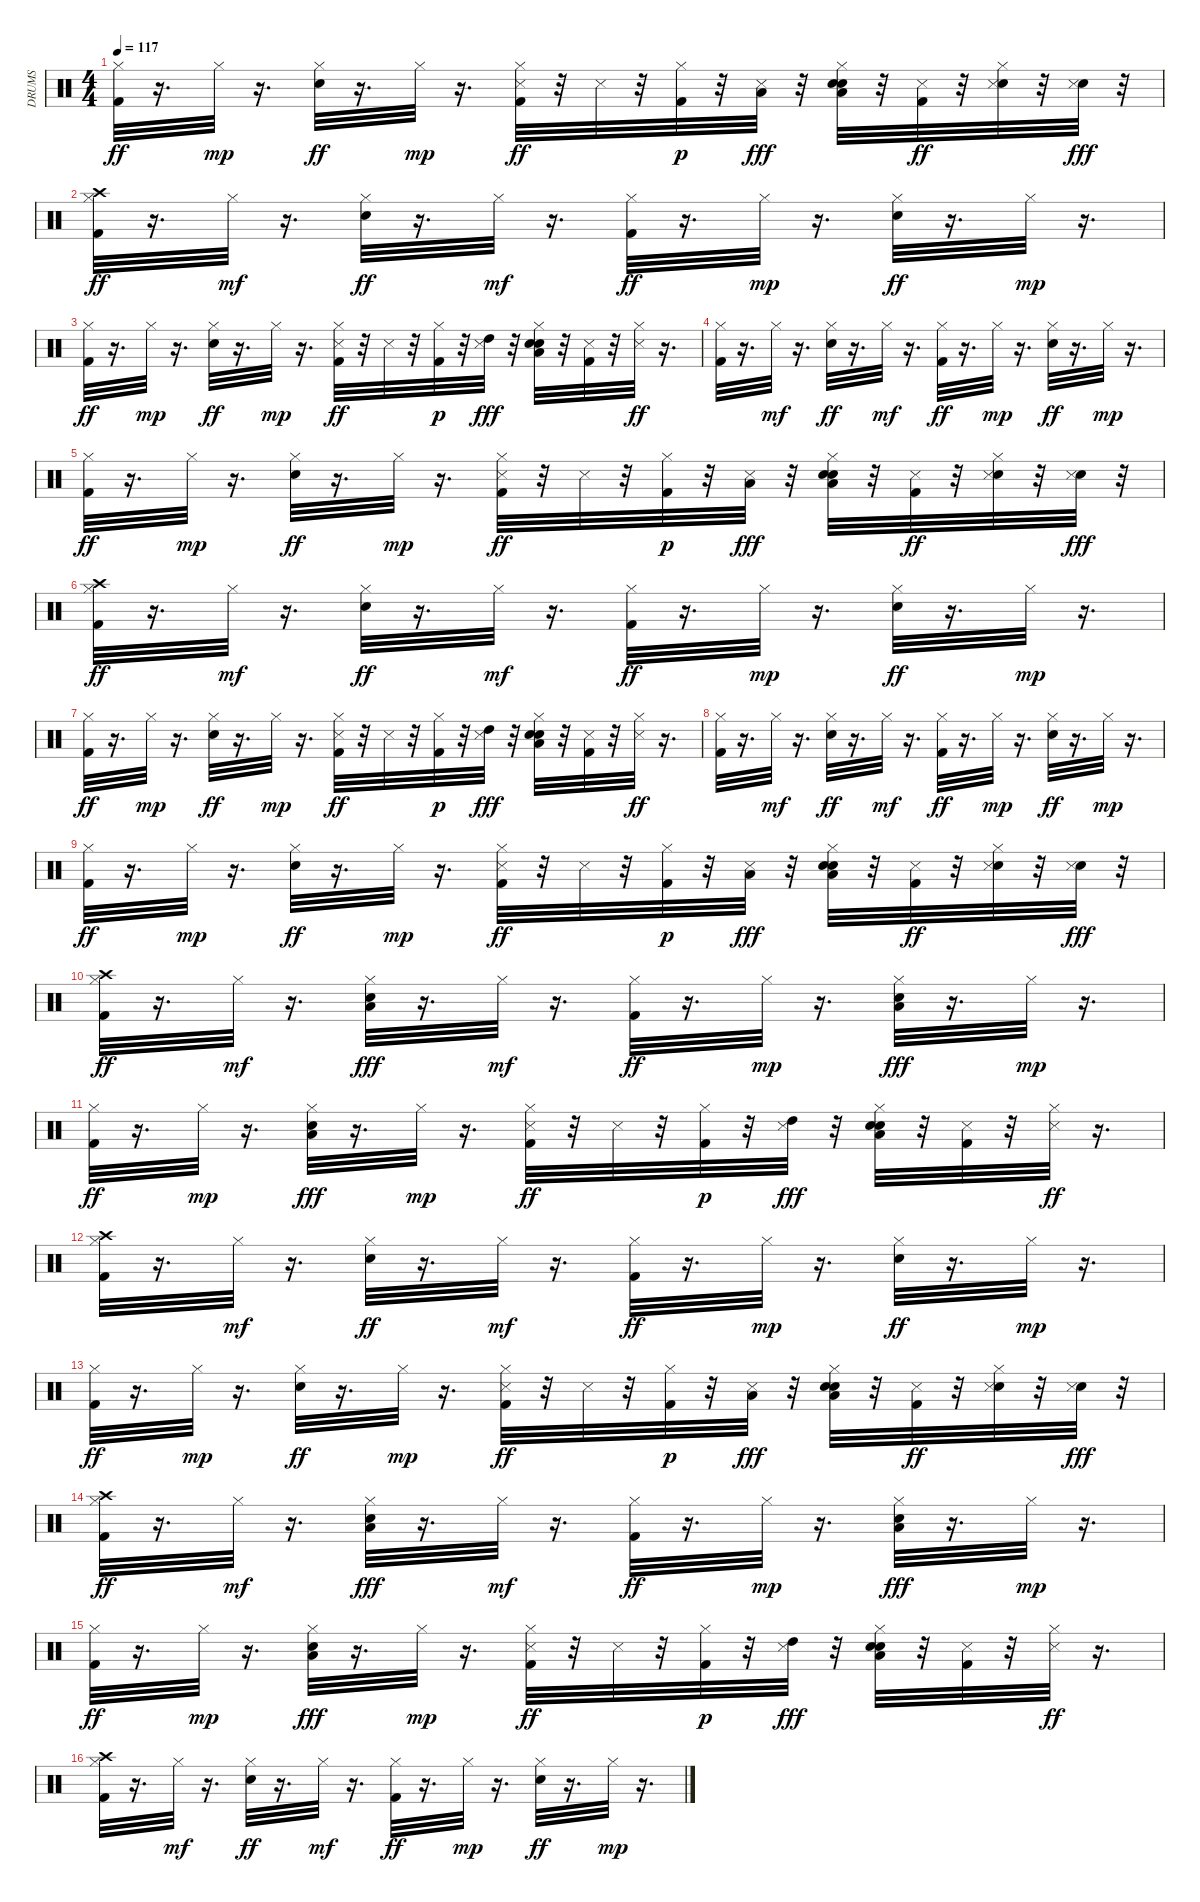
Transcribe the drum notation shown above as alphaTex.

\track ("DRUMS" "DRUMS") {instrument percussion}
\staff {score}
\articulation defaults
\ts (4 4)
\tempo 117
\clef neutral
\ks c
("Kick (hit) 2" "Hi-Hat (closed)").32{dy ff} r.16{d} "Hi-Hat (closed)".32{dy mp} r.16{d} ("Snare (hit) 2" "Hi-Hat (closed)").32{dy ff} r.16{d} "Hi-Hat (closed)".32{dy mp} r.16{d} ("Kick (hit) 2" "Hi-Hat (closed)" "Snare (side stick) 3").32{dy ff} r.32 "Snare (side stick) 3".32 r.32 ("Kick (hit) 2" "Hi-Hat (closed)").32{dy p} r.32 ("Low Tom (hit)" "Snare (side stick) 3").32{dy fff} r.32 ("Snare (hit) 2" "Hi-Hat (closed)" "Low Floor Tom (hit)" "Hand Clap (hit)").32 r.32 ("Kick (hit) 2" "Snare (side stick) 3").32{dy ff} r.32 ("Snare (hit) 2" "Hi-Hat (closed)" "Snare (side stick) 3").32 r.32 ("Snare (hit) 2" "Snare (side stick) 3").32{dy fff} r.32 |
("Crash high (hit)" "Kick (hit) 2" "Hi-Hat (closed)").32{dy ff} r.16{d} "Hi-Hat (closed)".32{dy mf} r.16{d} ("Snare (hit) 2" "Hi-Hat (closed)").32{dy ff} r.16{d} "Hi-Hat (closed)".32{dy mf} r.16{d} ("Kick (hit) 2" "Hi-Hat (closed)").32{dy ff} r.16{d} "Hi-Hat (closed)".32{dy mp} r.16{d} ("Snare (hit) 2" "Hi-Hat (closed)").32{dy ff} r.16{d} "Hi-Hat (closed)".32{dy mp} r.16{d} |
("Kick (hit) 2" "Hi-Hat (closed)").32{dy ff} r.16{d} "Hi-Hat (closed)".32{dy mp} r.16{d} ("Snare (hit) 2" "Hi-Hat (closed)").32{dy ff} r.16{d} "Hi-Hat (closed)".32{dy mp} r.16{d} ("Kick (hit) 2" "Hi-Hat (closed)" "Snare (side stick) 3").32{dy ff} r.32 "Snare (side stick) 3".32 r.32 ("Kick (hit) 2" "Hi-Hat (closed)").32{dy p} r.32 ("High Tom (hit)" "Snare (side stick) 3").32{dy fff} r.32 ("Snare (hit) 2" "Hi-Hat (closed)" "Low Tom (hit)" "Hand Clap (hit)").32 r.32 ("Kick (hit) 2" "Snare (side stick) 3").32 r.32 ("Hi-Hat (closed)" "Snare (side stick) 3").32{dy ff} r.16{d} |
("Kick (hit) 2" "Hi-Hat (closed)").32 r.16{d} "Hi-Hat (closed)".32{dy mf} r.16{d} ("Snare (hit) 2" "Hi-Hat (closed)").32{dy ff} r.16{d} "Hi-Hat (closed)".32{dy mf} r.16{d} ("Kick (hit) 2" "Hi-Hat (closed)").32{dy ff} r.16{d} "Hi-Hat (closed)".32{dy mp} r.16{d} ("Snare (hit) 2" "Hi-Hat (closed)").32{dy ff} r.16{d} "Hi-Hat (closed)".32{dy mp} r.16{d} |
("Kick (hit) 2" "Hi-Hat (closed)").32{dy ff} r.16{d} "Hi-Hat (closed)".32{dy mp} r.16{d} ("Snare (hit) 2" "Hi-Hat (closed)").32{dy ff} r.16{d} "Hi-Hat (closed)".32{dy mp} r.16{d} ("Kick (hit) 2" "Hi-Hat (closed)" "Snare (side stick) 3").32{dy ff} r.32 "Snare (side stick) 3".32 r.32 ("Kick (hit) 2" "Hi-Hat (closed)").32{dy p} r.32 ("Low Tom (hit)" "Snare (side stick) 3").32{dy fff} r.32 ("Snare (hit) 2" "Hi-Hat (closed)" "Low Floor Tom (hit)" "Hand Clap (hit)").32 r.32 ("Kick (hit) 2" "Snare (side stick) 3").32{dy ff} r.32 ("Snare (hit) 2" "Hi-Hat (closed)" "Snare (side stick) 3").32 r.32 ("Snare (hit) 2" "Snare (side stick) 3").32{dy fff} r.32 |
("Crash high (hit)" "Kick (hit) 2" "Hi-Hat (closed)").32{dy ff} r.16{d} "Hi-Hat (closed)".32{dy mf} r.16{d} ("Snare (hit) 2" "Hi-Hat (closed)").32{dy ff} r.16{d} "Hi-Hat (closed)".32{dy mf} r.16{d} ("Kick (hit) 2" "Hi-Hat (closed)").32{dy ff} r.16{d} "Hi-Hat (closed)".32{dy mp} r.16{d} ("Snare (hit) 2" "Hi-Hat (closed)").32{dy ff} r.16{d} "Hi-Hat (closed)".32{dy mp} r.16{d} |
("Kick (hit) 2" "Hi-Hat (closed)").32{dy ff} r.16{d} "Hi-Hat (closed)".32{dy mp} r.16{d} ("Snare (hit) 2" "Hi-Hat (closed)").32{dy ff} r.16{d} "Hi-Hat (closed)".32{dy mp} r.16{d} ("Kick (hit) 2" "Hi-Hat (closed)" "Snare (side stick) 3").32{dy ff} r.32 "Snare (side stick) 3".32 r.32 ("Kick (hit) 2" "Hi-Hat (closed)").32{dy p} r.32 ("High Tom (hit)" "Snare (side stick) 3").32{dy fff} r.32 ("Snare (hit) 2" "Hi-Hat (closed)" "Low Tom (hit)" "Hand Clap (hit)").32 r.32 ("Kick (hit) 2" "Snare (side stick) 3").32 r.32 ("Hi-Hat (closed)" "Snare (side stick) 3").32{dy ff} r.16{d} |
("Kick (hit) 2" "Hi-Hat (closed)").32 r.16{d} "Hi-Hat (closed)".32{dy mf} r.16{d} ("Snare (hit) 2" "Hi-Hat (closed)").32{dy ff} r.16{d} "Hi-Hat (closed)".32{dy mf} r.16{d} ("Kick (hit) 2" "Hi-Hat (closed)").32{dy ff} r.16{d} "Hi-Hat (closed)".32{dy mp} r.16{d} ("Snare (hit) 2" "Hi-Hat (closed)").32{dy ff} r.16{d} "Hi-Hat (closed)".32{dy mp} r.16{d} |
("Kick (hit) 2" "Hi-Hat (closed)").32{dy ff} r.16{d} "Hi-Hat (closed)".32{dy mp} r.16{d} ("Snare (hit) 2" "Hi-Hat (closed)").32{dy ff} r.16{d} "Hi-Hat (closed)".32{dy mp} r.16{d} ("Kick (hit) 2" "Hi-Hat (closed)" "Snare (side stick) 3").32{dy ff} r.32 "Snare (side stick) 3".32 r.32 ("Kick (hit) 2" "Hi-Hat (closed)").32{dy p} r.32 ("Low Tom (hit)" "Snare (side stick) 3").32{dy fff} r.32 ("Snare (hit) 2" "Hi-Hat (closed)" "Low Floor Tom (hit)" "Hand Clap (hit)").32 r.32 ("Kick (hit) 2" "Snare (side stick) 3").32{dy ff} r.32 ("Snare (hit) 2" "Hi-Hat (closed)" "Snare (side stick) 3").32 r.32 ("Snare (hit) 2" "Snare (side stick) 3").32{dy fff} r.32 |
("Crash high (hit)" "Kick (hit) 2" "Hi-Hat (closed)").32{dy ff} r.16{d} "Hi-Hat (closed)".32{dy mf} r.16{d} ("Snare (hit) 2" "Hi-Hat (closed)" "Low Tom (hit)").32{dy fff} r.16{d} "Hi-Hat (closed)".32{dy mf} r.16{d} ("Kick (hit) 2" "Hi-Hat (closed)").32{dy ff} r.16{d} "Hi-Hat (closed)".32{dy mp} r.16{d} ("Snare (hit) 2" "Hi-Hat (closed)" "Low Tom (hit)").32{dy fff} r.16{d} "Hi-Hat (closed)".32{dy mp} r.16{d} |
("Kick (hit) 2" "Hi-Hat (closed)").32{dy ff} r.16{d} "Hi-Hat (closed)".32{dy mp} r.16{d} ("Snare (hit) 2" "Hi-Hat (closed)" "Low Tom (hit)").32{dy fff} r.16{d} "Hi-Hat (closed)".32{dy mp} r.16{d} ("Kick (hit) 2" "Hi-Hat (closed)" "Snare (side stick) 3").32{dy ff} r.32 "Snare (side stick) 3".32 r.32 ("Kick (hit) 2" "Hi-Hat (closed)").32{dy p} r.32 ("High Tom (hit)" "Snare (side stick) 3").32{dy fff} r.32 ("Snare (hit) 2" "Hi-Hat (closed)" "Low Tom (hit)" "Hand Clap (hit)").32 r.32 ("Kick (hit) 2" "Snare (side stick) 3").32 r.32 ("Hi-Hat (closed)" "Snare (side stick) 3").32{dy ff} r.16{d} |
("Kick (hit) 2" "Hi-Hat (closed)" "Crash high (hit)").32 r.16{d} "Hi-Hat (closed)".32{dy mf} r.16{d} ("Snare (hit) 2" "Hi-Hat (closed)").32{dy ff} r.16{d} "Hi-Hat (closed)".32{dy mf} r.16{d} ("Kick (hit) 2" "Hi-Hat (closed)").32{dy ff} r.16{d} "Hi-Hat (closed)".32{dy mp} r.16{d} ("Snare (hit) 2" "Hi-Hat (closed)").32{dy ff} r.16{d} "Hi-Hat (closed)".32{dy mp} r.16{d} |
("Kick (hit) 2" "Hi-Hat (closed)").32{dy ff} r.16{d} "Hi-Hat (closed)".32{dy mp} r.16{d} ("Snare (hit) 2" "Hi-Hat (closed)").32{dy ff} r.16{d} "Hi-Hat (closed)".32{dy mp} r.16{d} ("Kick (hit) 2" "Hi-Hat (closed)" "Snare (side stick) 3").32{dy ff} r.32 "Snare (side stick) 3".32 r.32 ("Kick (hit) 2" "Hi-Hat (closed)").32{dy p} r.32 ("Low Tom (hit)" "Snare (side stick) 3").32{dy fff} r.32 ("Snare (hit) 2" "Hi-Hat (closed)" "Low Floor Tom (hit)" "Hand Clap (hit)").32 r.32 ("Kick (hit) 2" "Snare (side stick) 3").32{dy ff} r.32 ("Snare (hit) 2" "Hi-Hat (closed)" "Snare (side stick) 3").32 r.32 ("Snare (hit) 2" "Snare (side stick) 3").32{dy fff} r.32 |
("Crash high (hit)" "Kick (hit) 2" "Hi-Hat (closed)").32{dy ff} r.16{d} "Hi-Hat (closed)".32{dy mf} r.16{d} ("Snare (hit) 2" "Hi-Hat (closed)" "Low Tom (hit)").32{dy fff} r.16{d} "Hi-Hat (closed)".32{dy mf} r.16{d} ("Kick (hit) 2" "Hi-Hat (closed)").32{dy ff} r.16{d} "Hi-Hat (closed)".32{dy mp} r.16{d} ("Snare (hit) 2" "Hi-Hat (closed)" "Low Tom (hit)").32{dy fff} r.16{d} "Hi-Hat (closed)".32{dy mp} r.16{d} |
("Kick (hit) 2" "Hi-Hat (closed)").32{dy ff} r.16{d} "Hi-Hat (closed)".32{dy mp} r.16{d} ("Snare (hit) 2" "Hi-Hat (closed)" "Low Tom (hit)").32{dy fff} r.16{d} "Hi-Hat (closed)".32{dy mp} r.16{d} ("Kick (hit) 2" "Hi-Hat (closed)" "Snare (side stick) 3").32{dy ff} r.32 "Snare (side stick) 3".32 r.32 ("Kick (hit) 2" "Hi-Hat (closed)").32{dy p} r.32 ("High Tom (hit)" "Snare (side stick) 3").32{dy fff} r.32 ("Snare (hit) 2" "Hi-Hat (closed)" "Low Tom (hit)" "Hand Clap (hit)").32 r.32 ("Kick (hit) 2" "Snare (side stick) 3").32 r.32 ("Hi-Hat (closed)" "Snare (side stick) 3").32{dy ff} r.16{d} |
("Kick (hit) 2" "Hi-Hat (closed)" "Crash high (hit)").32 r.16{d} "Hi-Hat (closed)".32{dy mf} r.16{d} ("Snare (hit) 2" "Hi-Hat (closed)").32{dy ff} r.16{d} "Hi-Hat (closed)".32{dy mf} r.16{d} ("Kick (hit) 2" "Hi-Hat (closed)").32{dy ff} r.16{d} "Hi-Hat (closed)".32{dy mp} r.16{d} ("Snare (hit) 2" "Hi-Hat (closed)").32{dy ff} r.16{d} "Hi-Hat (closed)".32{dy mp} r.16{d}
